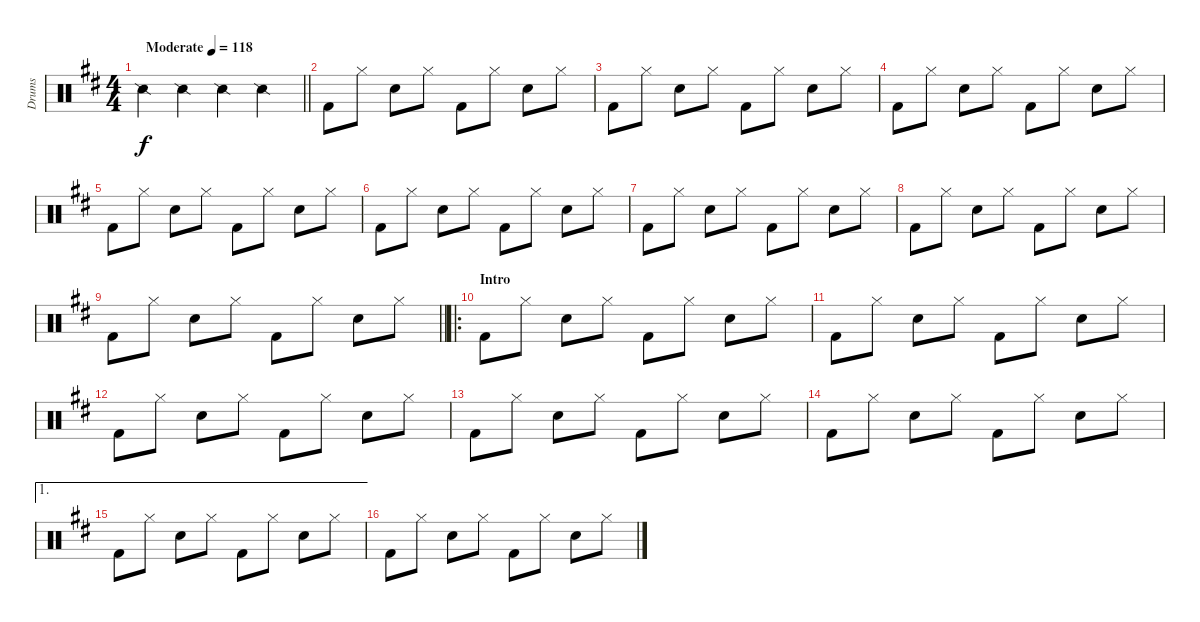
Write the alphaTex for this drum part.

\track ("Drums" "Drums") {instrument percussion}
\staff {score}
\articulation defaults
\ts (4 4)
\tempo (118 "Moderate")
\clef neutral
\barLineRight lightlight
\ks bminor "Snare (side stick) 2".4{dy f} "Snare (side stick) 2".4 "Snare (side stick) 2".4 "Snare (side stick) 2".4
|
"Kick (hit) 2".8 "Hi-Hat (closed)".8 "Snare (hit) 2".8 "Hi-Hat (closed)".8 "Kick (hit) 2".8 "Hi-Hat (closed)".8 "Snare (hit) 2".8 "Hi-Hat (closed)".8 |
"Kick (hit) 2".8 "Hi-Hat (closed)".8 "Snare (hit) 2".8 "Hi-Hat (closed)".8 "Kick (hit) 2".8 "Hi-Hat (closed)".8 "Snare (hit) 2".8 "Hi-Hat (closed)".8 |
"Kick (hit) 2".8 "Hi-Hat (closed)".8 "Snare (hit) 2".8 "Hi-Hat (closed)".8 "Kick (hit) 2".8 "Hi-Hat (closed)".8 "Snare (hit) 2".8 "Hi-Hat (closed)".8 |
"Kick (hit) 2".8 "Hi-Hat (closed)".8 "Snare (hit) 2".8 "Hi-Hat (closed)".8 "Kick (hit) 2".8 "Hi-Hat (closed)".8 "Snare (hit) 2".8 "Hi-Hat (closed)".8 |
"Kick (hit) 2".8 "Hi-Hat (closed)".8 "Snare (hit) 2".8 "Hi-Hat (closed)".8 "Kick (hit) 2".8 "Hi-Hat (closed)".8 "Snare (hit) 2".8 "Hi-Hat (closed)".8 |
"Kick (hit) 2".8 "Hi-Hat (closed)".8 "Snare (hit) 2".8 "Hi-Hat (closed)".8 "Kick (hit) 2".8 "Hi-Hat (closed)".8 "Snare (hit) 2".8 "Hi-Hat (closed)".8 |
"Kick (hit) 2".8 "Hi-Hat (closed)".8 "Snare (hit) 2".8 "Hi-Hat (closed)".8 "Kick (hit) 2".8 "Hi-Hat (closed)".8 "Snare (hit) 2".8 "Hi-Hat (closed)".8 |
\barLineRight lightlight "Kick (hit) 2".8 "Hi-Hat (closed)".8 "Snare (hit) 2".8 "Hi-Hat (closed)".8 "Kick (hit) 2".8 "Hi-Hat (closed)".8 "Snare (hit) 2".8 "Hi-Hat (closed)".8
|
\ro
\section ("" "Intro")
"Kick (hit) 2".8 "Hi-Hat (closed)".8 "Snare (hit) 2".8 "Hi-Hat (closed)".8 "Kick (hit) 2".8 "Hi-Hat (closed)".8 "Snare (hit) 2".8 "Hi-Hat (closed)".8 |
"Kick (hit) 2".8 "Hi-Hat (closed)".8 "Snare (hit) 2".8 "Hi-Hat (closed)".8 "Kick (hit) 2".8 "Hi-Hat (closed)".8 "Snare (hit) 2".8 "Hi-Hat (closed)".8 |
"Kick (hit) 2".8 "Hi-Hat (closed)".8 "Snare (hit) 2".8 "Hi-Hat (closed)".8 "Kick (hit) 2".8 "Hi-Hat (closed)".8 "Snare (hit) 2".8 "Hi-Hat (closed)".8 |
"Kick (hit) 2".8 "Hi-Hat (closed)".8 "Snare (hit) 2".8 "Hi-Hat (closed)".8 "Kick (hit) 2".8 "Hi-Hat (closed)".8 "Snare (hit) 2".8 "Hi-Hat (closed)".8 |
"Kick (hit) 2".8 "Hi-Hat (closed)".8 "Snare (hit) 2".8 "Hi-Hat (closed)".8 "Kick (hit) 2".8 "Hi-Hat (closed)".8 "Snare (hit) 2".8 "Hi-Hat (closed)".8 |
\ae 1 "Kick (hit) 2".8 "Hi-Hat (closed)".8 "Snare (hit) 2".8 "Hi-Hat (closed)".8 "Kick (hit) 2".8 "Hi-Hat (closed)".8 "Snare (hit) 2".8 "Hi-Hat (closed)".8
|
"Kick (hit) 2".8 "Hi-Hat (closed)".8 "Snare (hit) 2".8 "Hi-Hat (closed)".8 "Kick (hit) 2".8 "Hi-Hat (closed)".8 "Snare (hit) 2".8 "Hi-Hat (closed)".8
